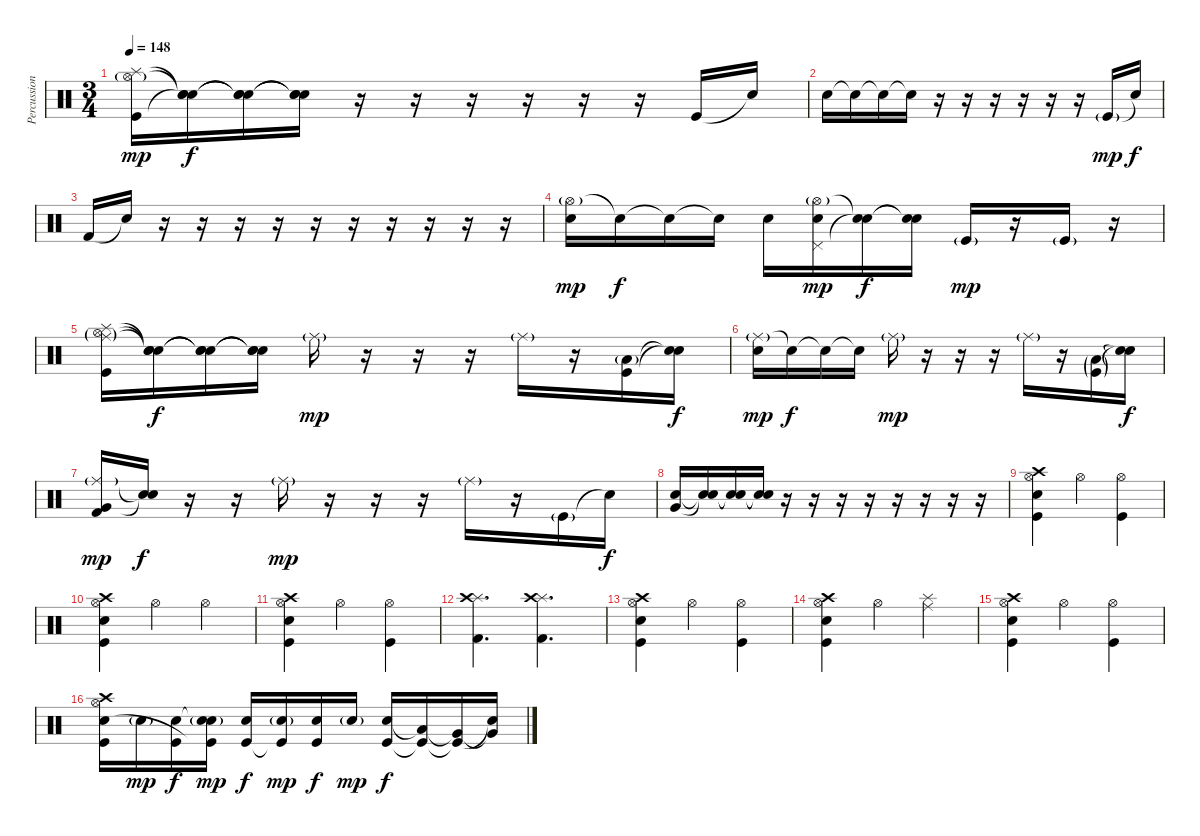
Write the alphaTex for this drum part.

\track ("Percussion" "Percussion") {instrument percussion}
\staff {score}
\articulation defaults
\ts (3 4)
\tempo 148
\clef neutral
\ks c
("Splash (hit)" "Hi-Hat (open)"{g} "Kick (hit)").16{dy mp} ("Snare (hit)"{t} "Snare (hit)"{t} "Snare (hit)"{t}).16{dy f} ("Snare (hit)"{t} "Snare (hit)"{t} "Snare (hit)"{t}).16 ("Snare (hit)"{t} "Snare (hit)"{t} "Snare (hit)"{t}).16 r.16 r.16 r.16 r.16 r.16 r.16 "Kick (hit)".16 "Snare (hit)"{t}.16 |
"Snare (hit) 2".16 "Snare (hit)"{t}.16 "Snare (hit)"{t}.16 "Snare (hit)"{t}.16 r.16 r.16 r.16 r.16 r.16 r.16 "Kick (hit)"{g}.16{dy mp} "Snare (hit)"{t}.16{dy f} |
"Kick (hit) 2".16 "Snare (hit)"{t}.16 r.16 r.16 r.16 r.16 r.16 r.16 r.16 r.16 r.16 r.16 |
("Hi-Hat (open)"{g} "Snare (hit) 2").16{dy mp} "Snare (hit)"{t}.16{dy f} "Snare (hit) 2"{t}.16 "Snare (hit) 2"{t}.16 "Snare (hit) 2".16 ("Pedal Hi-Hat (hit)" "Hi-Hat (open)"{g} "Snare (hit) 2").16{dy mp} ("Snare (hit)"{t} "Snare (hit)"{t}).16{dy f} ("Snare (hit)"{t} "Snare (hit)"{t}).16 "Kick (hit)"{g}.16{dy mp} r.16 "Kick (hit)"{g}.16 r.16 |
("Ride (middle)"{g} "Splash (hit)" "Hi-Hat (open)"{g} "Kick (hit)").16 ("Snare (hit)"{t} "Snare (hit)"{t} "Snare (hit)"{t}).16{dy f} ("Snare (hit)"{t} "Snare (hit)"{t} "Snare (hit)"{t}).16 ("Snare (hit)"{t} "Snare (hit)"{t} "Snare (hit)"{t}).16 "Ride (middle)"{g}.16{dy mp} r.16 r.16 r.16 "Ride (middle)"{g}.16 r.16 ("Low Floor Tom (hit)"{g} "Kick (hit)").16 ("Snare (hit)"{t} "Snare (hit)"{t}).16{dy f} |
("Ride (middle)"{g} "Snare (hit) 2").16{dy mp} "Snare (hit)"{t}.16{dy f} "Snare (hit)"{t}.16 "Snare (hit)"{t}.16 "Ride (middle)"{g}.16{dy mp} r.16 r.16 r.16 "Ride (middle)"{g}.16 r.16 ("Low Floor Tom (hit)"{g} "Kick (hit)"{g}).16 ("Snare (hit)"{t} "Snare (hit)"{t}).16{dy f} |
("Ride (middle)"{g} "Very Low Tom (hit)" "Kick (hit) 2").16{dy mp} ("Snare (hit)"{t} "Snare (hit)"{t}).16{dy f} r.16 r.16 "Ride (middle)"{g}.16{dy mp} r.16 r.16 r.16 "Ride (middle)"{g}.16 r.16 "Kick (hit)"{g}.16 "Snare (hit)"{t}.16{dy f} |
("Snare (hit) 2" "Very Low Tom (hit)").16 ("Snare (hit)"{t} "Snare (hit)"{t}).16 ("Snare (hit) 2"{t} "Snare (hit)"{t}).16 ("Snare (hit) 2"{t} "Snare (hit)"{t}).16 r.16 r.16 r.16 r.16 r.16 r.16 r.16 r.16 |
("Hi-Hat (open)" "Crash high (hit)" "Snare (hit) 2" "Kick (hit)").4{volume 12} "Hi-Hat (open)".4 ("Hi-Hat (open)" "Kick (hit)").4 |
("Hi-Hat (open)" "Crash high (hit)" "Snare (hit) 2" "Kick (hit)").4 "Hi-Hat (open)".4 "Hi-Hat (open)".4 |
("Hi-Hat (open)" "Crash high (hit)" "Snare (hit) 2" "Kick (hit)").4 "Hi-Hat (open)".4 ("Hi-Hat (open)" "Kick (hit)").4 |
("Splash (hit)" "Crash high (hit)" "Kick (hit) 2").4{d} ("Splash (hit)" "Crash high (hit)" "Kick (hit) 2").4{d} |
("Hi-Hat (open)" "Crash high (hit)" "Snare (hit) 2" "Kick (hit)").4 "Hi-Hat (open)".4 ("Hi-Hat (open)" "Kick (hit)").4 |
("Hi-Hat (open)" "Crash high (hit)" "Snare (hit) 2" "Kick (hit)").4 "Hi-Hat (open)".4 ("Ride (middle)" "Splash (hit)").4 |
("Hi-Hat (open)" "Crash high (hit)" "Snare (hit) 2" "Kick (hit)").4 "Hi-Hat (open)".4 ("Hi-Hat (open)" "Kick (hit)").4 |
("Hi-Hat (open)" "Crash high (hit)" "Snare (hit) 2" "Kick (hit)").16 "Snare (hit) 2"{g}.16{dy mp} ("Snare (hit) 2" "Kick (hit)").16{dy f} ("Snare (hit) 2"{t} "Snare (hit) 2"{g} "Kick (hit)"{t}).16{dy mp} ("Snare (hit) 2" "Kick (hit)").16{dy f} ("Snare (hit) 2"{g} "Kick (hit)"{t}).16{dy mp} ("Snare (hit) 2" "Kick (hit)").16{dy f} "Snare (hit) 2"{g}.16{dy mp} ("Snare (hit) 2" "Kick (hit)").16{dy f} ("Low Tom (hit)"{t} "Kick (hit)"{t}).16 ("Very Low Tom (hit)"{t} "Kick (hit)"{t}).16 ("Very Low Tom (hit)"{t} "Snare (hit)"{t}).16
